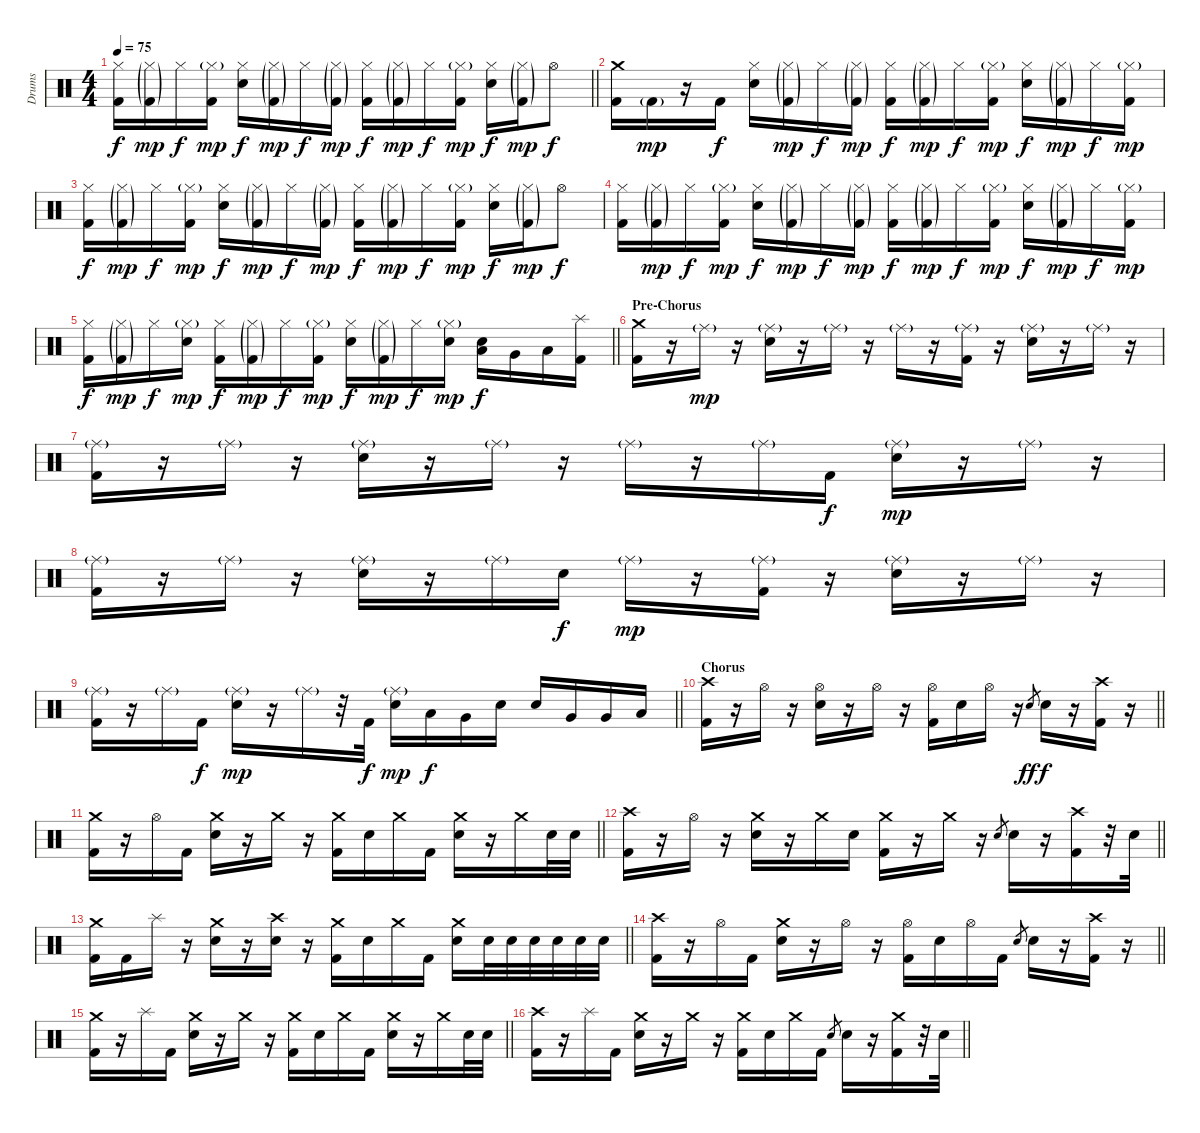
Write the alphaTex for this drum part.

\track ("Drums" "Drums") {instrument percussion}
\staff {score}
\articulation defaults
\ts (4 4)
\tempo 75
\clef neutral
\barLineRight lightlight
\ks c
("Hi-Hat (closed)" "Kick (hit) 2").16{dy f} ("Hi-Hat (closed)"{g} "Kick (hit) 2"{g}).16{dy mp} "Hi-Hat (closed)".16{dy f} ("Hi-Hat (closed)"{g} "Kick (hit) 2").16{dy mp} ("Hi-Hat (closed)" "Snare (hit) 2").16{dy f} ("Hi-Hat (closed)"{g} "Kick (hit) 2"{g}).16{dy mp} "Hi-Hat (closed)".16{dy f} ("Hi-Hat (closed)"{g} "Kick (hit) 2"{g}).16{dy mp} ("Hi-Hat (closed)" "Kick (hit) 2").16{dy f} ("Hi-Hat (closed)"{g} "Kick (hit) 2"{g}).16{dy mp} "Hi-Hat (closed)".16{dy f} ("Hi-Hat (closed)"{g} "Kick (hit) 2").16{dy mp} ("Hi-Hat (closed)" "Snare (hit) 2").16{dy f} ("Hi-Hat (closed)"{g} "Kick (hit) 2"{g}).16{dy mp} "Hi-Hat (open)".8{dy f} |
("Crash medium (hit)" "Kick (hit) 2").16 "Kick (hit) 2"{g}.16{dy mp} r.16 "Kick (hit) 2".16{dy f} ("Hi-Hat (closed)" "Snare (hit) 2").16 ("Hi-Hat (closed)"{g} "Kick (hit) 2"{g}).16{dy mp} "Hi-Hat (closed)".16{dy f} ("Hi-Hat (closed)"{g} "Kick (hit) 2"{g}).16{dy mp} ("Hi-Hat (closed)" "Kick (hit) 2").16{dy f} ("Hi-Hat (closed)"{g} "Kick (hit) 2"{g}).16{dy mp} "Hi-Hat (closed)".16{dy f} ("Hi-Hat (closed)"{g} "Kick (hit) 2").16{dy mp} ("Hi-Hat (closed)" "Snare (hit) 2").16{dy f} ("Hi-Hat (closed)"{g} "Kick (hit) 2"{g}).16{dy mp} "Hi-Hat (closed)".16{dy f} ("Hi-Hat (closed)"{g} "Kick (hit) 2").16{dy mp} |
("Hi-Hat (closed)" "Kick (hit) 2").16{dy f} ("Hi-Hat (closed)"{g} "Kick (hit) 2"{g}).16{dy mp} "Hi-Hat (closed)".16{dy f} ("Hi-Hat (closed)"{g} "Kick (hit) 2").16{dy mp} ("Hi-Hat (closed)" "Snare (hit) 2").16{dy f} ("Hi-Hat (closed)"{g} "Kick (hit) 2"{g}).16{dy mp} "Hi-Hat (closed)".16{dy f} ("Hi-Hat (closed)"{g} "Kick (hit) 2"{g}).16{dy mp} ("Hi-Hat (closed)" "Kick (hit) 2").16{dy f} ("Hi-Hat (closed)"{g} "Kick (hit) 2"{g}).16{dy mp} "Hi-Hat (closed)".16{dy f} ("Hi-Hat (closed)"{g} "Kick (hit) 2").16{dy mp} ("Hi-Hat (closed)" "Snare (hit) 2").16{dy f} ("Hi-Hat (closed)"{g} "Kick (hit) 2"{g}).16{dy mp} "Hi-Hat (open)".8{dy f} |
("Hi-Hat (closed)" "Kick (hit) 2").16 ("Hi-Hat (closed)"{g} "Kick (hit) 2"{g}).16{dy mp} "Hi-Hat (closed)".16{dy f} ("Hi-Hat (closed)"{g} "Kick (hit) 2").16{dy mp} ("Hi-Hat (closed)" "Snare (hit) 2").16{dy f} ("Hi-Hat (closed)"{g} "Kick (hit) 2"{g}).16{dy mp} "Hi-Hat (closed)".16{dy f} ("Hi-Hat (closed)"{g} "Kick (hit) 2"{g}).16{dy mp} ("Hi-Hat (closed)" "Kick (hit) 2").16{dy f} ("Hi-Hat (closed)"{g} "Kick (hit) 2"{g}).16{dy mp} "Hi-Hat (closed)".16{dy f} ("Hi-Hat (closed)"{g} "Kick (hit) 2").16{dy mp} ("Hi-Hat (closed)" "Snare (hit) 2").16{dy f} ("Hi-Hat (closed)"{g} "Kick (hit) 2"{g}).16{dy mp} "Hi-Hat (closed)".16{dy f} ("Hi-Hat (closed)"{g} "Kick (hit) 2").16{dy mp} |
\barLineRight lightlight
("Hi-Hat (closed)" "Kick (hit) 2").16{dy f} ("Hi-Hat (closed)"{g} "Kick (hit) 2"{g}).16{dy mp} "Hi-Hat (closed)".16{dy f} ("Hi-Hat (closed)"{g} "Snare (hit) 2").16{dy mp} ("Hi-Hat (closed)" "Kick (hit) 2").16{dy f} ("Hi-Hat (closed)"{g} "Kick (hit) 2"{g}).16{dy mp} "Hi-Hat (closed)".16{dy f} ("Hi-Hat (closed)"{g} "Kick (hit) 2").16{dy mp} ("Hi-Hat (closed)" "Snare (hit) 2").16{dy f} ("Hi-Hat (closed)"{g} "Kick (hit) 2"{g}).16{dy mp} "Hi-Hat (closed)".16{dy f} ("Hi-Hat (closed)"{g} "Snare (hit) 2").16{dy mp} ("Low Tom (hit)" "Snare (hit) 2").16{dy f} "Very Low Tom (hit)".16 "Low Floor Tom (hit)".16 ("Splash (hit)" "Kick (hit) 2").16 |
\section ("" "Pre-Chorus")
("Crash medium (hit)" "Kick (hit) 2").16 r.16 "Ride (middle)"{g}.16{dy mp} r.16 ("Ride (middle)"{g} "Snare (hit) 2").16 r.16 "Ride (middle)"{g}.16 r.16 "Ride (middle)"{g}.16 r.16 ("Ride (middle)"{g} "Kick (hit) 2").16 r.16 ("Ride (middle)"{g} "Snare (hit) 2").16 r.16 "Ride (middle)"{g}.16 r.16 |
("Ride (middle)"{g} "Kick (hit) 2").16 r.16 "Ride (middle)"{g}.16 r.16 ("Ride (middle)"{g} "Snare (hit) 2").16 r.16 "Ride (middle)"{g}.16 r.16 "Ride (middle)"{g}.16 r.16 "Ride (middle)"{g}.16 "Kick (hit) 2".16{dy f} ("Ride (middle)"{g} "Snare (hit) 2").16{dy mp} r.16 "Ride (middle)"{g}.16 r.16 |
("Ride (middle)"{g} "Kick (hit) 2").16 r.16 "Ride (middle)"{g}.16 r.16 ("Ride (middle)"{g} "Snare (hit) 2").16 r.16 "Ride (middle)"{g}.16 "Snare (hit) 2".16{dy f} "Ride (middle)"{g}.16{dy mp} r.16 ("Ride (middle)"{g} "Kick (hit) 2").16 r.16 ("Ride (middle)"{g} "Snare (hit) 2").16 r.16 "Ride (middle)"{g}.16 r.16 |
\barLineRight lightlight
("Ride (middle)"{g} "Kick (hit) 2").16 r.16 "Ride (middle)"{g}.16 "Kick (hit) 2".16{dy f} ("Ride (middle)"{g} "Snare (hit) 2").16{dy mp} r.16 "Ride (middle)"{g}.16 r.32 "Kick (hit) 2".32{dy f} ("Ride (middle)"{g} "Snare (hit) 2").16{dy mp} "Low Tom (hit)".16{dy f} "Very Low Tom (hit)".16 "Snare (hit) 2".16 "Snare (hit) 2".16 "Very Low Tom (hit)".16 "Very Low Tom (hit)".16 "Low Floor Tom (hit)".16 |
\section ("" "Chorus")
\barLineRight lightlight
("Crash high (hit)" "Kick (hit) 2").16 r.16 "Hi-Hat (open)".16 r.16 ("Hi-Hat (open)" "Snare (hit) 2").16 r.16 "Hi-Hat (open)".16 r.16 ("Hi-Hat (open)" "Kick (hit) 2").16 "Snare (hit) 2".16 "Hi-Hat (open)".16 r.16 "Snare (hit) 2".8{gr dy ff} "Snare (hit) 2".16{dy f} r.16 ("Crash high (hit)" "Kick (hit) 2").16 r.16 |
\barLineRight lightlight
("Crash medium (hit)" "Kick (hit) 2").16 r.16 "Hi-Hat (open)".16 "Kick (hit) 2".16 ("Crash medium (hit)" "Snare (hit) 2").16 r.16 "Crash medium (hit)".16 r.16 ("Crash medium (hit)" "Kick (hit) 2").16 "Snare (hit) 2".16 "Crash medium (hit)".16 "Kick (hit) 2".16 ("Crash medium (hit)" "Snare (hit) 2").16 r.16 "Crash medium (hit)".16 "Snare (hit) 2".32 "Snare (hit) 2".32 |
\barLineRight lightlight
("Crash high (hit)" "Kick (hit) 2").16 r.16 "Hi-Hat (open)".16 r.16 ("Crash medium (hit)" "Snare (hit) 2").16 r.16 "Crash medium (hit)".16 "Snare (hit) 2".16 ("Crash medium (hit)" "Kick (hit) 2").16 r.16 "Crash medium (hit)".16 r.16 "Snare (hit) 2".8{gr} "Snare (hit) 2".16 r.16 ("Crash high (hit)" "Kick (hit) 2").16 r.32 "Snare (hit) 2".32 |
\barLineRight lightlight
("Crash medium (hit)" "Kick (hit) 2").16 "Kick (hit) 2".16 "Splash (hit)".16 r.16 ("Crash medium (hit)" "Snare (hit) 2").16 r.16 ("Crash high (hit)" "Snare (hit) 2").16 r.16 ("Crash medium (hit)" "Kick (hit) 2").16 "Snare (hit) 2".16 "Crash medium (hit)".16 "Kick (hit) 2".16 ("Crash medium (hit)" "Snare (hit) 2").16 "Snare (hit) 2".32 "Snare (hit) 2".32 "Snare (hit) 2".32 "Snare (hit) 2".32 "Snare (hit) 2".32 "Snare (hit) 2".32 |
\barLineRight lightlight
("Crash high (hit)" "Kick (hit) 2").16 r.16 "Hi-Hat (open)".16 "Kick (hit) 2".16 ("Crash medium (hit)" "Snare (hit) 2").16 r.16 "Hi-Hat (open)".16 r.16 ("Hi-Hat (open)" "Kick (hit) 2").16 "Snare (hit) 2".16 "Hi-Hat (open)".16 "Kick (hit) 2".16 "Snare (hit) 2".8{gr} "Snare (hit) 2".16 r.16 ("Crash high (hit)" "Kick (hit) 2").16 r.16 |
\barLineRight lightlight
("Crash medium (hit)" "Kick (hit) 2").16 r.16 "Splash (hit)".16 "Kick (hit) 2".16 ("Crash medium (hit)" "Snare (hit) 2").16 r.16 "Crash medium (hit)".16 r.16 ("Crash medium (hit)" "Kick (hit) 2").16 "Snare (hit) 2".16 "Crash medium (hit)".16 "Kick (hit) 2".16 ("Crash medium (hit)" "Snare (hit) 2").16 r.16 "Crash medium (hit)".16 "Snare (hit) 2".32 "Snare (hit) 2".32 |
\barLineRight lightlight
("Crash high (hit)" "Kick (hit) 2").16 r.16 "Splash (hit)".16 "Kick (hit) 2".16 ("Crash medium (hit)" "Snare (hit) 2").16 r.16 "Crash medium (hit)".16 r.16 ("Crash medium (hit)" "Kick (hit) 2").16 "Snare (hit) 2".16 "Crash medium (hit)".16 "Kick (hit) 2".16 "Snare (hit) 2".8{gr} "Snare (hit) 2".16 r.16 ("Crash medium (hit)" "Kick (hit) 2").16 r.32 "Snare (hit) 2".32
